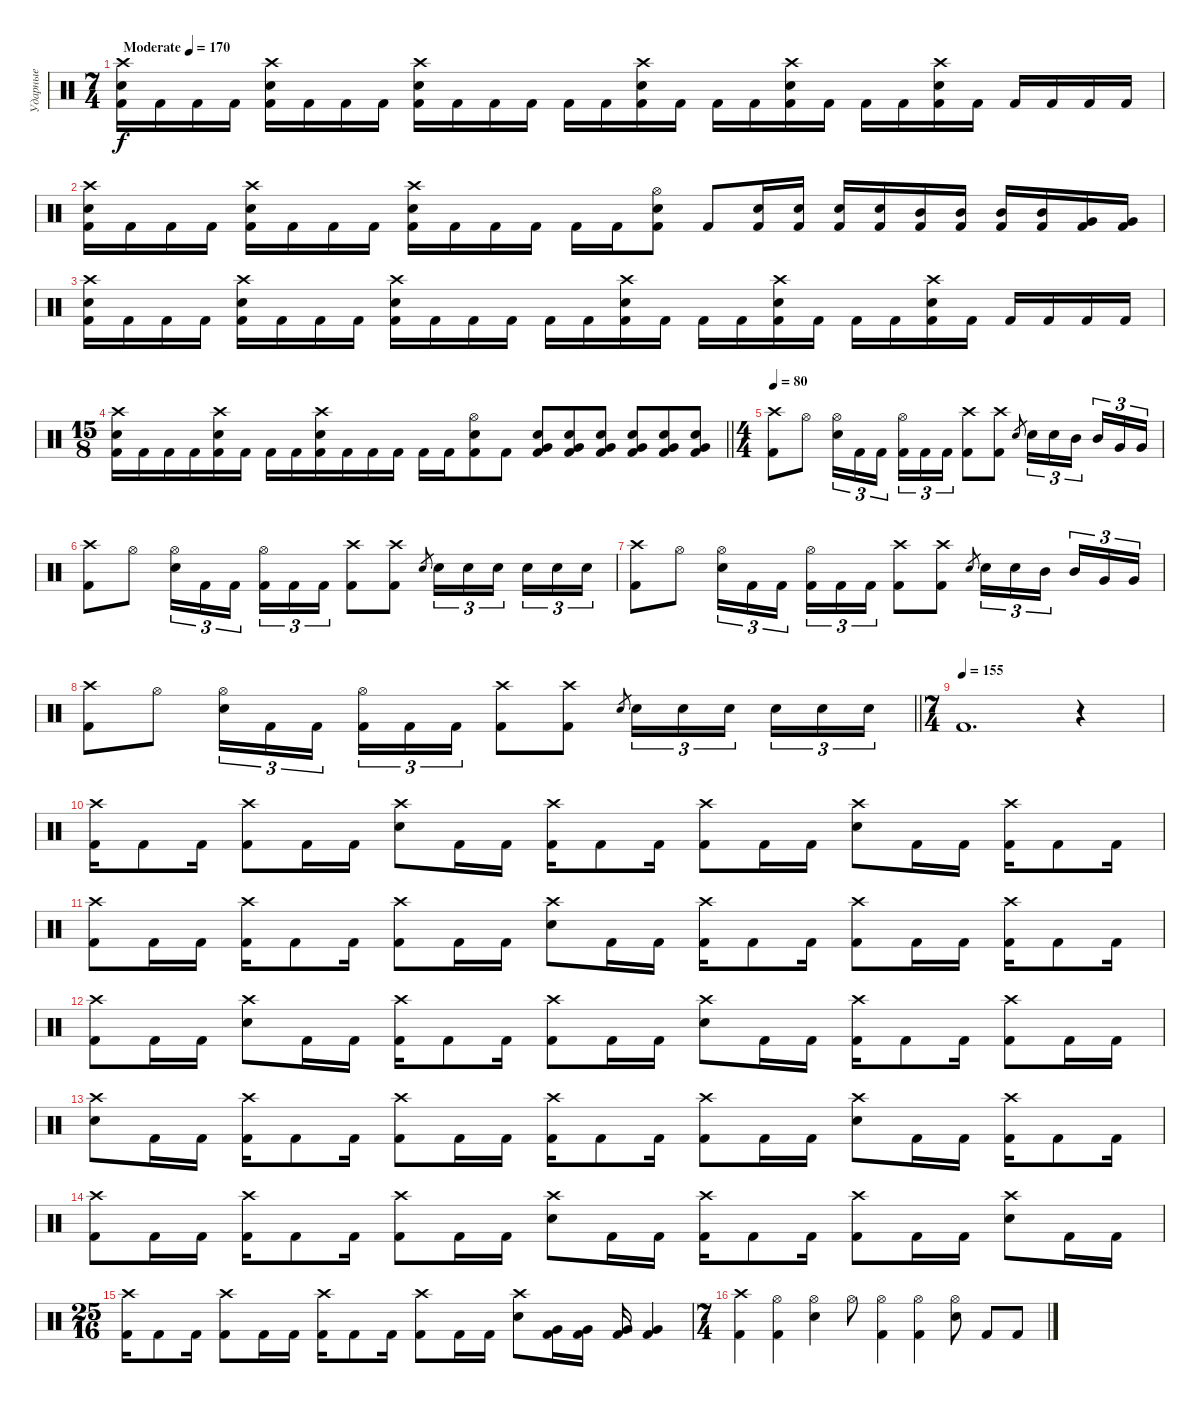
\track ("Ударные" "Ударные") {instrument percussion}
\staff {score}
\articulation defaults
\ts (7 4)
\tempo (170 "Moderate")
\clef neutral
\ks c
("Crash high (hit)" "Electric Snare (hit)" "Kick (hit) 2").16{dy f} "Kick (hit) 2".16 "Kick (hit) 2".16 "Kick (hit) 2".16 ("Crash high (hit)" "Electric Snare (hit)" "Kick (hit) 2").16 "Kick (hit) 2".16 "Kick (hit) 2".16 "Kick (hit) 2".16 ("Crash high (hit)" "Electric Snare (hit)" "Kick (hit) 2").16 "Kick (hit) 2".16 "Kick (hit) 2".16 "Kick (hit) 2".16 "Kick (hit) 2".16 "Kick (hit) 2".16 ("Crash high (hit)" "Electric Snare (hit)" "Kick (hit) 2").16 "Kick (hit) 2".16 "Kick (hit) 2".16 "Kick (hit) 2".16 ("Crash high (hit)" "Electric Snare (hit)" "Kick (hit) 2").16 "Kick (hit) 2".16 "Kick (hit) 2".16 "Kick (hit) 2".16 ("Crash high (hit)" "Electric Snare (hit)" "Kick (hit) 2").16 "Kick (hit) 2".16 "Kick (hit) 2".16 "Kick (hit) 2".16 "Kick (hit) 2".16 "Kick (hit) 2".16 |
("Crash high (hit)" "Electric Snare (hit)" "Kick (hit) 2").16 "Kick (hit) 2".16 "Kick (hit) 2".16 "Kick (hit) 2".16 ("Crash high (hit)" "Electric Snare (hit)" "Kick (hit) 2").16 "Kick (hit) 2".16 "Kick (hit) 2".16 "Kick (hit) 2".16 ("Crash high (hit)" "Electric Snare (hit)" "Kick (hit) 2").16 "Kick (hit) 2".16 "Kick (hit) 2".16 "Kick (hit) 2".16 "Kick (hit) 2".16 "Kick (hit) 2".16 ("Hi-Hat (open)" "Electric Snare (hit)" "Kick (hit) 2").8 "Kick (hit) 2".8 ("Electric Snare (hit)" "Kick (hit) 2").16 ("Electric Snare (hit)" "Kick (hit) 2").16 ("Electric Snare (hit)" "Kick (hit) 2").16 ("Electric Snare (hit)" "Kick (hit) 2").16 ("Mid Tom (hit)" "Kick (hit) 2").16 ("Mid Tom (hit)" "Kick (hit) 2").16 ("Mid Tom (hit)" "Kick (hit) 2").16 ("Mid Tom (hit)" "Kick (hit) 2").16 ("Very Low Tom (hit)" "Kick (hit) 2").16 ("Very Low Tom (hit)" "Kick (hit) 2").16 |
("Crash high (hit)" "Electric Snare (hit)" "Kick (hit) 2").16 "Kick (hit) 2".16 "Kick (hit) 2".16 "Kick (hit) 2".16 ("Crash high (hit)" "Electric Snare (hit)" "Kick (hit) 2").16 "Kick (hit) 2".16 "Kick (hit) 2".16 "Kick (hit) 2".16 ("Crash high (hit)" "Electric Snare (hit)" "Kick (hit) 2").16 "Kick (hit) 2".16 "Kick (hit) 2".16 "Kick (hit) 2".16 "Kick (hit) 2".16 "Kick (hit) 2".16 ("Crash high (hit)" "Electric Snare (hit)" "Kick (hit) 2").16 "Kick (hit) 2".16 "Kick (hit) 2".16 "Kick (hit) 2".16 ("Crash high (hit)" "Electric Snare (hit)" "Kick (hit) 2").16 "Kick (hit) 2".16 "Kick (hit) 2".16 "Kick (hit) 2".16 ("Crash high (hit)" "Electric Snare (hit)" "Kick (hit) 2").16 "Kick (hit) 2".16 "Kick (hit) 2".16 "Kick (hit) 2".16 "Kick (hit) 2".16 "Kick (hit) 2".16 |
\ts (15 8)
\barLineRight lightlight
("Crash high (hit)" "Electric Snare (hit)" "Kick (hit) 2").16 "Kick (hit) 2".16 "Kick (hit) 2".16 "Kick (hit) 2".16 ("Crash high (hit)" "Electric Snare (hit)" "Kick (hit) 2").16 "Kick (hit) 2".16 "Kick (hit) 2".16 "Kick (hit) 2".16 ("Crash high (hit)" "Electric Snare (hit)" "Kick (hit) 2").16 "Kick (hit) 2".16 "Kick (hit) 2".16 "Kick (hit) 2".16 "Kick (hit) 2".16 "Kick (hit) 2".16 ("Hi-Hat (open)" "Electric Snare (hit)" "Kick (hit) 2").8 "Kick (hit) 2".8 ("Electric Snare (hit)" "Very Low Tom (hit)" "Kick (hit) 2").8 ("Electric Snare (hit)" "Very Low Tom (hit)" "Kick (hit) 2").8 ("Electric Snare (hit)" "Very Low Tom (hit)" "Kick (hit) 2").8 ("Electric Snare (hit)" "Very Low Tom (hit)" "Kick (hit) 2").8 ("Electric Snare (hit)" "Very Low Tom (hit)" "Kick (hit) 2").8 ("Electric Snare (hit)" "Very Low Tom (hit)" "Kick (hit) 2").8 |
\ts (4 4)
\tempo 80
("Crash high (hit)" "Kick (hit) 2").8 "Hi-Hat (open)".8 ("Hi-Hat (open)" "Electric Snare (hit)").16{tu (3 2)} "Kick (hit) 2".16{tu (3 2)} "Kick (hit) 2".16{tu (3 2) beam splitsecondary} ("Hi-Hat (open)" "Kick (hit) 2").16{tu (3 2)} "Kick (hit) 2".16{tu (3 2)} "Kick (hit) 2".16{tu (3 2)} ("Crash high (hit)" "Kick (hit) 2").8 ("Crash high (hit)" "Kick (hit) 2").8 "Electric Snare (hit)".8{gr} "Electric Snare (hit)".16{tu (3 2)} "Electric Snare (hit)".16{tu (3 2)} "Mid Tom (hit)".16{tu (3 2) beam splitsecondary} "Mid Tom (hit)".16{tu (3 2)} "Very Low Tom (hit)".16{tu (3 2)} "Very Low Tom (hit)".16{tu (3 2)} |
("Crash high (hit)" "Kick (hit) 2").8 "Hi-Hat (open)".8 ("Hi-Hat (open)" "Electric Snare (hit)").16{tu (3 2)} "Kick (hit) 2".16{tu (3 2)} "Kick (hit) 2".16{tu (3 2) beam splitsecondary} ("Hi-Hat (open)" "Kick (hit) 2").16{tu (3 2)} "Kick (hit) 2".16{tu (3 2)} "Kick (hit) 2".16{tu (3 2)} ("Crash high (hit)" "Kick (hit) 2").8 ("Crash high (hit)" "Kick (hit) 2").8 "Electric Snare (hit)".8{gr} "Electric Snare (hit)".16{tu (3 2)} "Electric Snare (hit)".16{tu (3 2)} "Electric Snare (hit)".16{tu (3 2) beam splitsecondary} "Electric Snare (hit)".16{tu (3 2)} "Electric Snare (hit)".16{tu (3 2)} "Electric Snare (hit)".16{tu (3 2)} |
("Crash high (hit)" "Kick (hit) 2").8 "Hi-Hat (open)".8 ("Hi-Hat (open)" "Electric Snare (hit)").16{tu (3 2)} "Kick (hit) 2".16{tu (3 2)} "Kick (hit) 2".16{tu (3 2) beam splitsecondary} ("Hi-Hat (open)" "Kick (hit) 2").16{tu (3 2)} "Kick (hit) 2".16{tu (3 2)} "Kick (hit) 2".16{tu (3 2)} ("Crash high (hit)" "Kick (hit) 2").8 ("Crash high (hit)" "Kick (hit) 2").8 "Electric Snare (hit)".8{gr} "Electric Snare (hit)".16{tu (3 2)} "Electric Snare (hit)".16{tu (3 2)} "Mid Tom (hit)".16{tu (3 2) beam splitsecondary} "Mid Tom (hit)".16{tu (3 2)} "Very Low Tom (hit)".16{tu (3 2)} "Very Low Tom (hit)".16{tu (3 2)} |
\barLineRight lightlight
("Crash high (hit)" "Kick (hit) 2").8 "Hi-Hat (open)".8 ("Hi-Hat (open)" "Electric Snare (hit)").16{tu (3 2)} "Kick (hit) 2".16{tu (3 2)} "Kick (hit) 2".16{tu (3 2) beam splitsecondary} ("Hi-Hat (open)" "Kick (hit) 2").16{tu (3 2)} "Kick (hit) 2".16{tu (3 2)} "Kick (hit) 2".16{tu (3 2)} ("Crash high (hit)" "Kick (hit) 2").8 ("Crash high (hit)" "Kick (hit) 2").8 "Electric Snare (hit)".8{gr} "Electric Snare (hit)".16{tu (3 2)} "Electric Snare (hit)".16{tu (3 2)} "Electric Snare (hit)".16{tu (3 2) beam splitsecondary} "Electric Snare (hit)".16{tu (3 2)} "Electric Snare (hit)".16{tu (3 2)} "Electric Snare (hit)".16{tu (3 2)} |
\ts (7 4)
\tempo (155)
"Kick (hit) 2".1{d} r.4 |
("Crash high (hit)" "Kick (hit) 2").16 "Kick (hit) 2".8 "Kick (hit) 2".16 ("Crash high (hit)" "Kick (hit) 2").8 "Kick (hit) 2".16 "Kick (hit) 2".16 ("Crash high (hit)" "Electric Snare (hit)").8 "Kick (hit) 2".16 "Kick (hit) 2".16 ("Crash high (hit)" "Kick (hit) 2").16 "Kick (hit) 2".8 "Kick (hit) 2".16 ("Crash high (hit)" "Kick (hit) 2").8 "Kick (hit) 2".16 "Kick (hit) 2".16 ("Crash high (hit)" "Electric Snare (hit)").8 "Kick (hit) 2".16 "Kick (hit) 2".16 ("Crash high (hit)" "Kick (hit) 2").16 "Kick (hit) 2".8 "Kick (hit) 2".16 |
("Crash high (hit)" "Kick (hit) 2").8 "Kick (hit) 2".16 "Kick (hit) 2".16 ("Crash high (hit)" "Kick (hit) 2").16 "Kick (hit) 2".8 "Kick (hit) 2".16 ("Crash high (hit)" "Kick (hit) 2").8 "Kick (hit) 2".16 "Kick (hit) 2".16 ("Crash high (hit)" "Electric Snare (hit)").8 "Kick (hit) 2".16 "Kick (hit) 2".16 ("Crash high (hit)" "Kick (hit) 2").16 "Kick (hit) 2".8 "Kick (hit) 2".16 ("Crash high (hit)" "Kick (hit) 2").8 "Kick (hit) 2".16 "Kick (hit) 2".16 ("Crash high (hit)" "Kick (hit) 2").16 "Kick (hit) 2".8 "Kick (hit) 2".16 |
("Crash high (hit)" "Kick (hit) 2").8 "Kick (hit) 2".16 "Kick (hit) 2".16 ("Crash high (hit)" "Electric Snare (hit)").8 "Kick (hit) 2".16 "Kick (hit) 2".16 ("Crash high (hit)" "Kick (hit) 2").16 "Kick (hit) 2".8 "Kick (hit) 2".16 ("Crash high (hit)" "Kick (hit) 2").8 "Kick (hit) 2".16 "Kick (hit) 2".16 ("Crash high (hit)" "Electric Snare (hit)").8 "Kick (hit) 2".16 "Kick (hit) 2".16 ("Crash high (hit)" "Kick (hit) 2").16 "Kick (hit) 2".8 "Kick (hit) 2".16 ("Crash high (hit)" "Kick (hit) 2").8 "Kick (hit) 2".16 "Kick (hit) 2".16 |
("Crash high (hit)" "Electric Snare (hit)").8 "Kick (hit) 2".16 "Kick (hit) 2".16 ("Crash high (hit)" "Kick (hit) 2").16 "Kick (hit) 2".8 "Kick (hit) 2".16 ("Crash high (hit)" "Kick (hit) 2").8 "Kick (hit) 2".16 "Kick (hit) 2".16 ("Crash high (hit)" "Kick (hit) 2").16 "Kick (hit) 2".8 "Kick (hit) 2".16 ("Crash high (hit)" "Kick (hit) 2").8 "Kick (hit) 2".16 "Kick (hit) 2".16 ("Crash high (hit)" "Electric Snare (hit)").8 "Kick (hit) 2".16 "Kick (hit) 2".16 ("Crash high (hit)" "Kick (hit) 2").16 "Kick (hit) 2".8 "Kick (hit) 2".16 |
("Crash high (hit)" "Kick (hit) 2").8 "Kick (hit) 2".16 "Kick (hit) 2".16 ("Crash high (hit)" "Kick (hit) 2").16 "Kick (hit) 2".8 "Kick (hit) 2".16 ("Crash high (hit)" "Kick (hit) 2").8 "Kick (hit) 2".16 "Kick (hit) 2".16 ("Crash high (hit)" "Electric Snare (hit)").8 "Kick (hit) 2".16 "Kick (hit) 2".16 ("Crash high (hit)" "Kick (hit) 2").16 "Kick (hit) 2".8 "Kick (hit) 2".16 ("Crash high (hit)" "Kick (hit) 2").8 "Kick (hit) 2".16 "Kick (hit) 2".16 ("Crash high (hit)" "Electric Snare (hit)").8 "Kick (hit) 2".16 "Kick (hit) 2".16 |
\ts (25 16)
("Crash high (hit)" "Kick (hit) 2").16 "Kick (hit) 2".8 "Kick (hit) 2".16 ("Crash high (hit)" "Kick (hit) 2").8 "Kick (hit) 2".16 "Kick (hit) 2".16 ("Crash high (hit)" "Kick (hit) 2").16 "Kick (hit) 2".8 "Kick (hit) 2".16 ("Crash high (hit)" "Kick (hit) 2").8 "Kick (hit) 2".16 "Kick (hit) 2".16 ("Crash high (hit)" "Electric Snare (hit)").8 ("Very Low Tom (hit)" "Kick (hit) 2").16 ("Very Low Tom (hit)" "Kick (hit) 2").16 ("Very Low Tom (hit)" "Kick (hit) 2").16 ("Very Low Tom (hit)" "Kick (hit) 2").4 |
\ts (7 4)
("Crash high (hit)" "Kick (hit) 2").4 ("Hi-Hat (open)" "Kick (hit) 2").4 ("Hi-Hat (open)" "Electric Snare (hit)").4 "Hi-Hat (open)".8 ("Hi-Hat (open)" "Kick (hit) 2").4 ("Hi-Hat (open)" "Kick (hit) 2").4 ("Hi-Hat (open)" "Electric Snare (hit)").8 "Kick (hit) 2".8 "Kick (hit) 2".8
